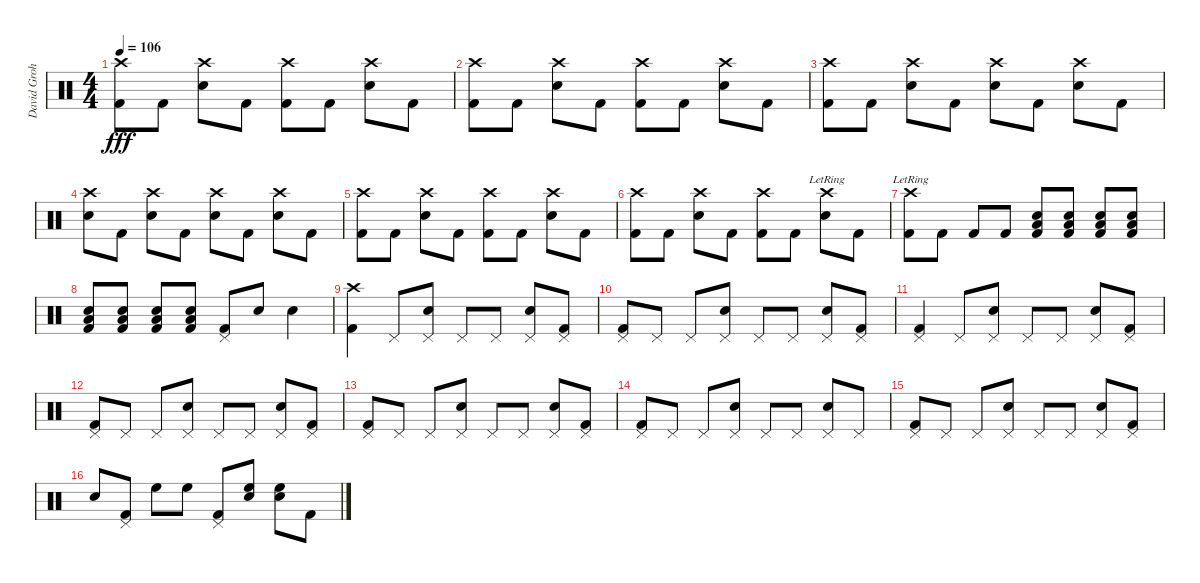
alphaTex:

\track ("David Grohl 2 Crash Style !!" "David Groh") {instrument percussion}
\staff {score}
\articulation defaults
\ts (4 4)
\tempo 106
\clef neutral
\ks c
("Crash high (hit)" "Kick (hit) 2").8{dy fff} "Kick (hit) 2".8 ("Crash high (hit)" "Snare (hit) 2").8 "Kick (hit) 2".8 ("Crash high (hit)" "Kick (hit) 2").8 "Kick (hit) 2".8 ("Crash high (hit)" "Snare (hit) 2").8 "Kick (hit) 2".8 |
("Crash high (hit)" "Kick (hit) 2").8 "Kick (hit) 2".8 ("Crash high (hit)" "Snare (hit) 2").8 "Kick (hit) 2".8 ("Crash high (hit)" "Kick (hit) 2").8 "Kick (hit) 2".8 ("Crash high (hit)" "Snare (hit) 2").8 "Kick (hit) 2".8 |
("Crash high (hit)" "Kick (hit) 2").8 "Kick (hit) 2".8 ("Crash high (hit)" "Snare (hit) 2").8 "Kick (hit) 2".8 ("Crash high (hit)" "Snare (hit) 2").8 "Kick (hit) 2".8 ("Crash high (hit)" "Snare (hit) 2").8 "Kick (hit) 2".8 |
("Crash high (hit)" "Snare (hit) 2").8 "Kick (hit) 2".8 ("Crash high (hit)" "Snare (hit) 2").8 "Kick (hit) 2".8 ("Crash high (hit)" "Snare (hit) 2").8 "Kick (hit) 2".8 ("Crash high (hit)" "Snare (hit) 2").8 "Kick (hit) 2".8 |
("Crash high (hit)" "Kick (hit) 2").8 "Kick (hit) 2".8 ("Crash high (hit)" "Snare (hit) 2").8 "Kick (hit) 2".8 ("Crash high (hit)" "Kick (hit) 2").8 "Kick (hit) 2".8 ("Crash high (hit)" "Snare (hit) 2").8 "Kick (hit) 2".8 |
("Crash high (hit)" "Kick (hit) 2").8 "Kick (hit) 2".8 ("Crash high (hit)" "Snare (hit) 2").8 "Kick (hit) 2".8 ("Crash high (hit)" "Kick (hit) 2").8 "Kick (hit) 2".8 ("Crash high (hit)"{lr} "Snare (hit) 2").8 "Kick (hit) 2".8 |
("Crash high (hit)"{lr} "Kick (hit) 2").8 "Kick (hit) 2".8 "Kick (hit) 2".8 "Kick (hit) 2".8 ("Snare (hit) 2" "Low Tom (hit)" "Kick (hit) 2").8 ("Snare (hit) 2" "Low Tom (hit)" "Kick (hit) 2").8 ("Snare (hit) 2" "Low Tom (hit)" "Kick (hit) 2").8 ("Snare (hit) 2" "Low Tom (hit)" "Kick (hit) 2").8 |
("Snare (hit) 2" "Low Tom (hit)" "Kick (hit) 2").8 ("Snare (hit) 2" "Low Tom (hit)" "Kick (hit) 2").8 ("Snare (hit) 2" "Low Tom (hit)" "Kick (hit) 2").8 ("Snare (hit) 2" "Low Tom (hit)" "Kick (hit) 2").8 ("Pedal Hi-Hat (hit)" "Kick (hit) 2").8 "Snare (hit) 2".8 "Snare (hit) 2".4 |
("Crash high (hit)" "Kick (hit) 2").4 "Pedal Hi-Hat (hit)".8 ("Pedal Hi-Hat (hit)" "Snare (hit) 2").8 "Pedal Hi-Hat (hit)".8 "Pedal Hi-Hat (hit)".8 ("Pedal Hi-Hat (hit)" "Snare (hit) 2").8 ("Pedal Hi-Hat (hit)" "Kick (hit) 2").8 |
("Pedal Hi-Hat (hit)" "Kick (hit) 2").8 "Pedal Hi-Hat (hit)".8 "Pedal Hi-Hat (hit)".8 ("Pedal Hi-Hat (hit)" "Snare (hit) 2").8 "Pedal Hi-Hat (hit)".8 "Pedal Hi-Hat (hit)".8 ("Pedal Hi-Hat (hit)" "Snare (hit) 2").8 ("Pedal Hi-Hat (hit)" "Kick (hit) 2").8 |
("Pedal Hi-Hat (hit)" "Kick (hit) 2").4 "Pedal Hi-Hat (hit)".8 ("Pedal Hi-Hat (hit)" "Snare (hit) 2").8 "Pedal Hi-Hat (hit)".8 "Pedal Hi-Hat (hit)".8 ("Pedal Hi-Hat (hit)" "Snare (hit) 2").8 ("Pedal Hi-Hat (hit)" "Kick (hit) 2").8 |
("Pedal Hi-Hat (hit)" "Kick (hit) 2").8 "Pedal Hi-Hat (hit)".8 "Pedal Hi-Hat (hit)".8 ("Pedal Hi-Hat (hit)" "Snare (hit) 2").8 "Pedal Hi-Hat (hit)".8 "Pedal Hi-Hat (hit)".8 ("Pedal Hi-Hat (hit)" "Snare (hit) 2").8 ("Pedal Hi-Hat (hit)" "Kick (hit) 2").8 |
("Pedal Hi-Hat (hit)" "Kick (hit) 2").8 "Pedal Hi-Hat (hit)".8 "Pedal Hi-Hat (hit)".8 ("Pedal Hi-Hat (hit)" "Snare (hit) 2").8 "Pedal Hi-Hat (hit)".8 "Pedal Hi-Hat (hit)".8 ("Pedal Hi-Hat (hit)" "Snare (hit) 2").8 ("Pedal Hi-Hat (hit)" "Kick (hit) 2").8 |
("Pedal Hi-Hat (hit)" "Kick (hit) 2").8 "Pedal Hi-Hat (hit)".8 "Pedal Hi-Hat (hit)".8 ("Pedal Hi-Hat (hit)" "Snare (hit) 2").8 "Pedal Hi-Hat (hit)".8 "Pedal Hi-Hat (hit)".8 ("Pedal Hi-Hat (hit)" "Snare (hit) 2").8 "Pedal Hi-Hat (hit)".8 |
("Pedal Hi-Hat (hit)" "Kick (hit) 2").8 "Pedal Hi-Hat (hit)".8 "Pedal Hi-Hat (hit)".8 ("Pedal Hi-Hat (hit)" "Snare (hit) 2").8 "Pedal Hi-Hat (hit)".8 "Pedal Hi-Hat (hit)".8 ("Pedal Hi-Hat (hit)" "Snare (hit) 2").8 ("Pedal Hi-Hat (hit)" "Kick (hit) 2").8 |
"Snare (hit) 2".8 ("Pedal Hi-Hat (hit)" "Kick (hit) 2").8 "High Floor Tom (hit)".8 "High Floor Tom (hit)".8 ("Pedal Hi-Hat (hit)" "Kick (hit) 2").8 ("High Floor Tom (hit)" "Snare (hit) 2").8 ("High Floor Tom (hit)" "Snare (hit) 2").8 "Kick (hit) 2".8
